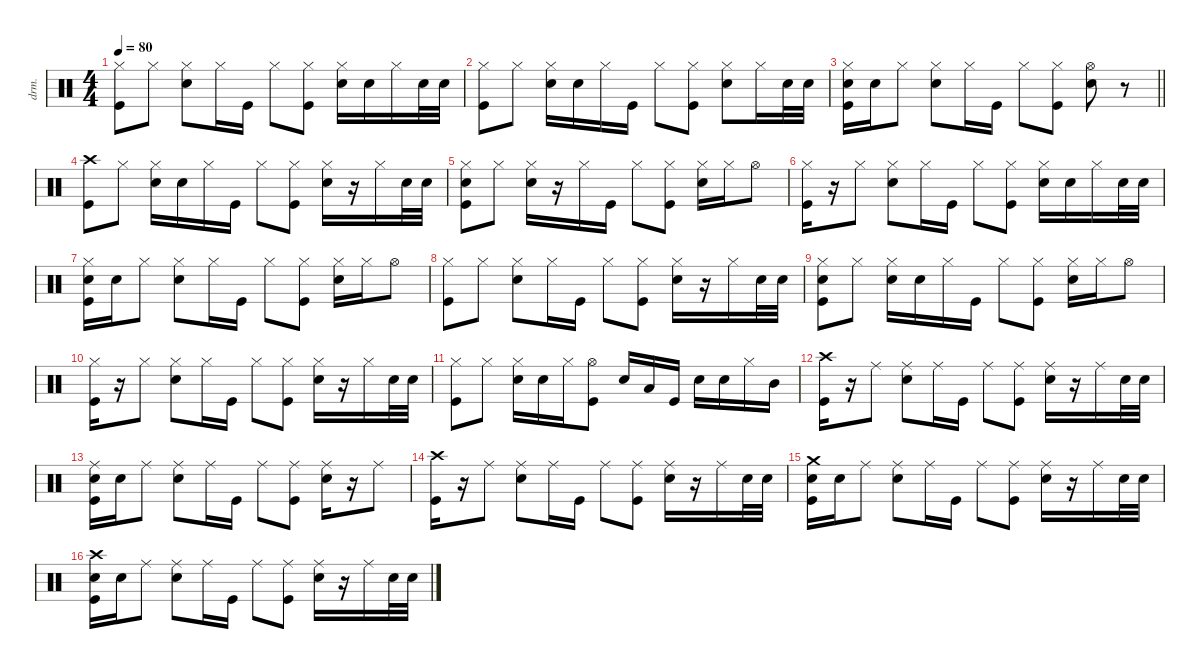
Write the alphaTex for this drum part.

\defaultSystemsLayout 4
\hideDynamics
\bracketExtendMode nobrackets
\otherSystemsTrackNameOrientation horizontal
\track ("Percussion" "drm.") {instrument percussion}
\staff {score}
\articulation defaults
\ts (4 4)
\tempo 80
\clef neutral
\ks c
("Hi-Hat (closed)" "Kick (hit)").8{dy f beam Down} "Hi-Hat (closed)".8{beam Down} ("Hi-Hat (closed)" "Snare (hit) 2").8{beam Down} "Hi-Hat (closed)".16{beam Down} "Kick (hit)".16{beam Down} "Hi-Hat (closed)".8{beam Down} ("Hi-Hat (closed)" "Kick (hit)").8{beam Down} ("Hi-Hat (closed)" "Snare (hit) 2").16{beam Down} "Snare (hit) 2".16{dy p beam Down} "Hi-Hat (closed)".16{dy f beam Down} "Snare (hit) 2".32{dy p beam Down} "Snare (hit) 2".32{beam Down} |
("Hi-Hat (closed)" "Kick (hit)").8{dy f beam Down} "Hi-Hat (closed)".8{beam Down} ("Hi-Hat (closed)" "Snare (hit) 2").16{beam Down} "Snare (hit) 2".16{dy p beam Down} "Hi-Hat (closed)".16{dy f beam Down} "Kick (hit)".16{beam Down} "Hi-Hat (closed)".8{beam Down} ("Hi-Hat (closed)" "Kick (hit)").8{beam Down} ("Hi-Hat (closed)" "Snare (hit) 2").8{beam Down} "Hi-Hat (closed)".16{beam Down} "Snare (hit) 2".32{dy p beam Down} "Snare (hit) 2".32{beam Down} |
\barLineRight lightlight
("Hi-Hat (closed)" "Snare (hit) 2" "Kick (hit)").16{dy f beam Down} "Snare (hit) 2".16{dy pp beam Down} "Hi-Hat (closed)".8{dy f beam Down} ("Hi-Hat (closed)" "Snare (hit) 2").8{beam Down} "Hi-Hat (closed)".16{beam Down} "Kick (hit)".16{beam Down} "Hi-Hat (closed)".8{beam Down} ("Hi-Hat (closed)" "Kick (hit)").8{beam Down} ("Hi-Hat (open)" "Snare (hit) 2").8{beam Down} r.8{beam Down} |
("Crash high (hit)" "Kick (hit)").8{beam Down} "Hi-Hat (closed)".8{dy mp beam Down} ("Hi-Hat (closed)" "Snare (hit) 2").16{dy f beam Down} "Snare (hit) 2".16{dy p beam Down} "Hi-Hat (closed)".16{dy f beam Down} "Kick (hit)".16{beam Down} "Hi-Hat (closed)".8{beam Down} ("Hi-Hat (closed)" "Kick (hit)").8{beam Down} ("Hi-Hat (closed)" "Snare (hit) 2").16{beam Down} r.16{beam Down} "Hi-Hat (closed)".16{beam Down} "Snare (hit) 2".32{dy p beam Down} "Snare (hit) 2".32{beam Down} |
("Hi-Hat (closed)" "Snare (hit) 2" "Kick (hit)").8{dy f beam Down} "Hi-Hat (closed)".8{beam Down} ("Hi-Hat (closed)" "Snare (hit) 2").16{beam Down} r.16{beam Down} "Hi-Hat (closed)".16{beam Down} "Kick (hit)".16{beam Down} "Hi-Hat (closed)".8{beam Down} ("Hi-Hat (closed)" "Kick (hit)").8{beam Down} ("Hi-Hat (closed)" "Snare (hit) 2").16{beam Down} "Hi-Hat (closed)".16{dy mp beam Down} "Hi-Hat (open)".8{dy f beam Down} |
("Hi-Hat (closed)" "Kick (hit)").16{beam Down} r.16{beam Down} "Hi-Hat (closed)".8{beam Down} ("Hi-Hat (closed)" "Snare (hit) 2").8{beam Down} "Hi-Hat (closed)".16{beam Down} "Kick (hit)".16{beam Down} "Hi-Hat (closed)".8{beam Down} ("Hi-Hat (closed)" "Kick (hit)").8{beam Down} ("Hi-Hat (closed)" "Snare (hit) 2").16{beam Down} "Snare (hit) 2".16{dy p beam Down} "Hi-Hat (closed)".16{dy f beam Down} "Snare (hit) 2".32{dy p beam Down} "Snare (hit) 2".32{beam Down} |
("Hi-Hat (closed)" "Snare (hit) 2" "Kick (hit)").16{dy f beam Down} "Snare (hit) 2".16{dy pp beam Down} "Hi-Hat (closed)".8{dy f beam Down} ("Hi-Hat (closed)" "Snare (hit) 2").8{beam Down} "Hi-Hat (closed)".16{beam Down} "Kick (hit)".16{beam Down} "Hi-Hat (closed)".8{beam Down} ("Hi-Hat (closed)" "Kick (hit)").8{beam Down} ("Hi-Hat (closed)" "Snare (hit) 2").16{beam Down} "Hi-Hat (closed)".16{dy mp beam Down} "Hi-Hat (open)".8{dy f beam Down} |
("Hi-Hat (closed)" "Kick (hit)").8{beam Down} "Hi-Hat (closed)".8{dy mp beam Down} ("Hi-Hat (closed)" "Snare (hit) 2").8{dy f beam Down} "Hi-Hat (closed)".16{beam Down} "Kick (hit)".16{beam Down} "Hi-Hat (closed)".8{beam Down} ("Hi-Hat (closed)" "Kick (hit)").8{beam Down} ("Hi-Hat (closed)" "Snare (hit) 2").16{beam Down} r.16{beam Down} "Hi-Hat (closed)".16{beam Down} "Snare (hit) 2".32{dy p beam Down} "Snare (hit) 2".32{beam Down} |
("Hi-Hat (closed)" "Snare (hit) 2" "Kick (hit)").8{dy f beam Down} "Hi-Hat (closed)".8{beam Down} ("Hi-Hat (closed)" "Snare (hit) 2").16{beam Down} "Snare (hit) 2".16{dy p beam Down} "Hi-Hat (closed)".16{dy f beam Down} "Kick (hit)".16{beam Down} "Hi-Hat (closed)".8{beam Down} ("Hi-Hat (closed)" "Kick (hit)").8{beam Down} ("Hi-Hat (closed)" "Snare (hit) 2").16{beam Down} "Hi-Hat (closed)".16{dy mp beam Down} "Hi-Hat (open)".8{dy f beam Down} |
("Hi-Hat (closed)" "Kick (hit)").16{beam Down} r.16{beam Down} "Hi-Hat (closed)".8{beam Down} ("Hi-Hat (closed)" "Snare (hit) 2").8{beam Down} "Hi-Hat (closed)".16{beam Down} "Kick (hit)".16{beam Down} "Hi-Hat (closed)".8{beam Down} ("Hi-Hat (closed)" "Kick (hit)").8{beam Down} ("Hi-Hat (closed)" "Snare (hit) 2").16{beam Down} r.16{beam Down} "Hi-Hat (closed)".16{beam Down} "Snare (hit) 2".32{dy p beam Down} "Snare (hit) 2".32{beam Down} |
("Hi-Hat (closed)" "Kick (hit)").8{dy f beam Down} "Hi-Hat (closed)".8{beam Down} ("Hi-Hat (closed)" "Snare (hit) 2").16{beam Down} "Snare (hit) 2".16{dy p beam Down} "Hi-Hat (closed)".16{dy f beam Down} ("Hi-Hat (open)" "Kick (hit)").8{beam Down} "Snare (hit) 2".16{beam Up} "Low Tom (hit)".16{dy mp beam Up} "Kick (hit)".16{dy mf beam Up} "Snare (hit) 2".16{dy f beam Down} "Snare (hit) 2".16{dy p beam Down} "Hi-Hat (closed)".16{dy f beam Down} "Mid Tom (hit)".16{beam Down} |
("Crash high (hit)" "Kick (hit)").16{beam Down} r.16{beam Down} "Ride (middle)".8{beam Down} ("Ride (middle)" "Snare (hit) 2").8{beam Down} "Ride (middle)".16{beam Down} "Kick (hit)".16{beam Down} "Ride (middle)".8{beam Down} ("Ride (middle)" "Kick (hit)").8{beam Down} ("Ride (middle)" "Snare (hit) 2").16{beam Down} r.16{beam Down} "Ride (middle)".16{beam Down} "Snare (hit) 2".32{dy p beam Down} "Snare (hit) 2".32{beam Down} |
("Ride (middle)" "Snare (hit) 2" "Kick (hit)").16{dy f beam Down} "Snare (hit) 2".16{dy p beam Down} "Ride (middle)".8{dy f beam Down} ("Ride (middle)" "Snare (hit) 2").8{beam Down} "Ride (middle)".16{beam Down} "Kick (hit)".16{beam Down} "Ride (middle)".8{beam Down} ("Ride (middle)" "Kick (hit)").8{beam Down} ("Ride (middle)" "Snare (hit) 2").16{beam Down} r.16{beam Down} "Ride (middle)".8{beam Down} |
("Crash high (hit)" "Kick (hit)").16{beam Down} r.16{beam Down} "Ride (middle)".8{beam Down} ("Ride (middle)" "Snare (hit) 2").8{beam Down} "Ride (middle)".16{beam Down} "Kick (hit)".16{beam Down} "Ride (middle)".8{beam Down} ("Ride (middle)" "Kick (hit)").8{beam Down} ("Ride (middle)" "Snare (hit) 2").16{beam Down} r.16{beam Down} "Ride (middle)".16{beam Down} "Snare (hit) 2".32{dy p beam Down} "Snare (hit) 2".32{beam Down} |
("Crash medium (hit)" "Snare (hit) 2" "Kick (hit)").16{dy f beam Down} "Snare (hit) 2".16{dy p beam Down} "Ride (middle)".8{dy f beam Down} ("Ride (middle)" "Snare (hit) 2").8{beam Down} "Ride (middle)".16{beam Down} "Kick (hit)".16{beam Down} "Ride (middle)".8{beam Down} ("Ride (middle)" "Kick (hit)").8{beam Down} ("Ride (middle)" "Snare (hit) 2").16{beam Down} r.16{beam Down} "Ride (middle)".16{beam Down} "Snare (hit) 2".32{dy p beam Down} "Snare (hit) 2".32{beam Down} |
("Crash high (hit)" "Snare (hit) 2" "Kick (hit)").16{dy f beam Down} "Snare (hit) 2".16{dy p beam Down} "Ride (middle)".8{dy f beam Down} ("Ride (middle)" "Snare (hit) 2").8{beam Down} "Ride (middle)".16{beam Down} "Kick (hit)".16{beam Down} "Ride (middle)".8{beam Down} ("Ride (middle)" "Kick (hit)").8{beam Down} ("Ride (middle)" "Snare (hit) 2").16{beam Down} r.16{beam Down} "Ride (middle)".16{beam Down} "Snare (hit) 2".32{dy p beam Down} "Snare (hit) 2".32{beam Down}
